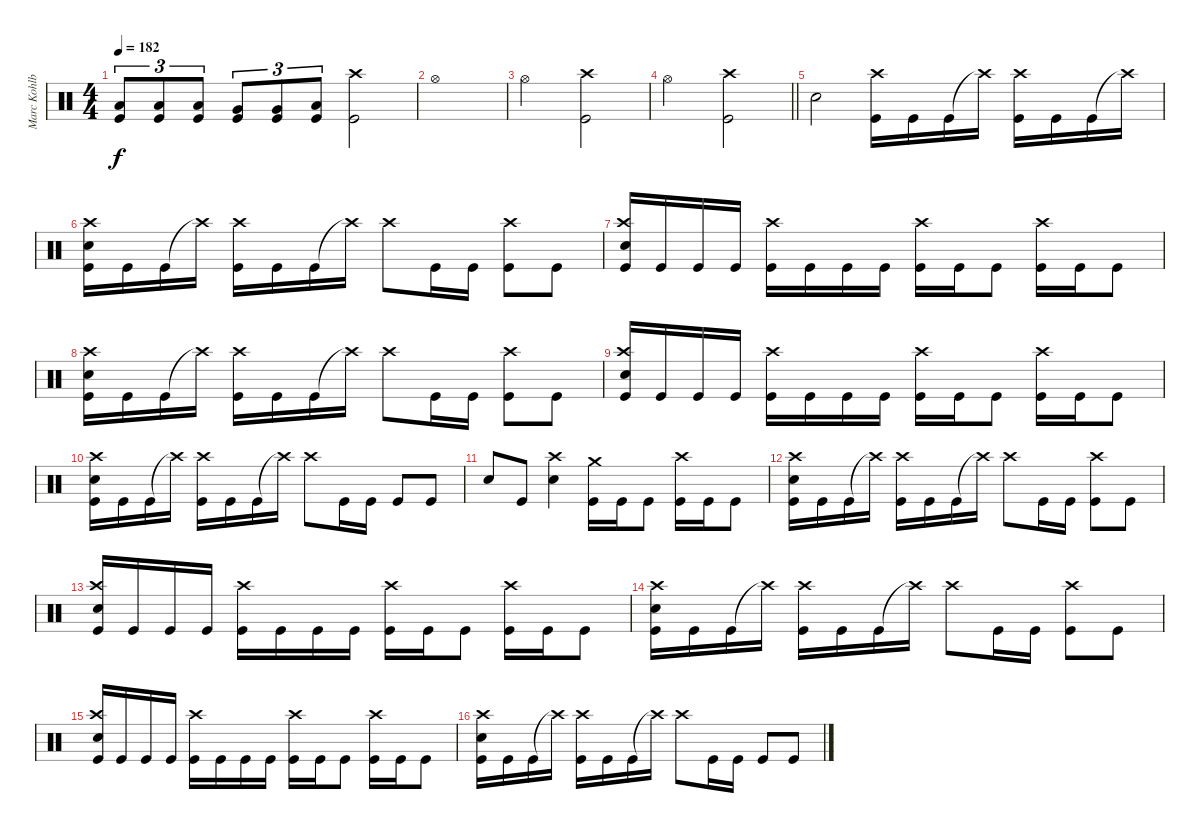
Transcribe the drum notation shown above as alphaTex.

\track ("Marc Kohlbry" "Marc Kohlb") {instrument percussion}
\staff {score}
\articulation defaults
\ts (4 4)
\tempo 182
\clef neutral
\ks c
("Low Tom (hit)" "Kick (hit)").8{tu (3 2) dy f} ("Low Tom (hit)" "Kick (hit)").8{tu (3 2)} ("Low Tom (hit)" "Kick (hit)").8{tu (3 2)} ("Very Low Tom (hit)" "Kick (hit)").8{tu (3 2)} ("Very Low Tom (hit)" "Kick (hit)").8{tu (3 2)} ("Low Floor Tom (hit)" "Kick (hit)").8{tu (3 2)} ("Crash high (hit)" "Kick (hit)").2 |
"Hi-Hat (open)".1 |
"Hi-Hat (open)".2 ("Crash high (hit)" "Kick (hit)").2 |
\barLineRight lightlight "Hi-Hat (open)".2
("Crash high (hit)" "Kick (hit)").2 |
"Electric Snare (hit)".2 ("Crash high (hit)" "Kick (hit)").16 "Kick (hit)".16 "Kick (hit)".16 "Crash high (hit)"{t}.16 ("Crash high (hit)" "Kick (hit)").16 "Kick (hit)".16 "Kick (hit)".16 "Crash high (hit)"{t}.16 |
("Crash high (hit)" "Electric Snare (hit)" "Kick (hit)").16 "Kick (hit)".16 "Kick (hit)".16 "Crash high (hit)"{t}.16 ("Crash high (hit)" "Kick (hit)").16 "Kick (hit)".16 "Kick (hit)".16 "Crash high (hit)"{t}.16 "Crash high (hit)".8 "Kick (hit)".16 "Kick (hit)".16 ("Crash high (hit)" "Kick (hit)").8 "Kick (hit)".8 |
("Crash high (hit)" "Electric Snare (hit)" "Kick (hit)").16 "Kick (hit)".16 "Kick (hit)".16 "Kick (hit)".16 ("Crash high (hit)" "Kick (hit)").16 "Kick (hit)".16 "Kick (hit)".16 "Kick (hit)".16 ("Crash high (hit)" "Kick (hit)").16 "Kick (hit)".16 "Kick (hit)".8 ("Crash high (hit)" "Kick (hit)").16 "Kick (hit)".16 "Kick (hit)".8 |
("Crash high (hit)" "Electric Snare (hit)" "Kick (hit)").16 "Kick (hit)".16 "Kick (hit)".16 "Crash high (hit)"{t}.16 ("Crash high (hit)" "Kick (hit)").16 "Kick (hit)".16 "Kick (hit)".16 "Crash high (hit)"{t}.16 "Crash high (hit)".8 "Kick (hit)".16 "Kick (hit)".16 ("Crash high (hit)" "Kick (hit)").8 "Kick (hit)".8 |
("Crash high (hit)" "Electric Snare (hit)" "Kick (hit)").16 "Kick (hit)".16 "Kick (hit)".16 "Kick (hit)".16 ("Crash high (hit)" "Kick (hit)").16 "Kick (hit)".16 "Kick (hit)".16 "Kick (hit)".16 ("Crash high (hit)" "Kick (hit)").16 "Kick (hit)".16 "Kick (hit)".8 ("Crash high (hit)" "Kick (hit)").16 "Kick (hit)".16 "Kick (hit)".8 |
("Crash high (hit)" "Electric Snare (hit)" "Kick (hit)").16 "Kick (hit)".16 "Kick (hit)".16 "Crash high (hit)"{t}.16 ("Crash high (hit)" "Kick (hit)").16 "Kick (hit)".16 "Kick (hit)".16 "Crash high (hit)"{t}.16 "Crash high (hit)".8 "Kick (hit)".16 "Kick (hit)".16 "Kick (hit)".8 "Kick (hit)".8 |
"Electric Snare (hit)".8 "Kick (hit)".8 ("Crash high (hit)" "Electric Snare (hit)").4 ("Crash medium (hit)" "Kick (hit)").16 "Kick (hit)".16 "Kick (hit)".8 ("Crash high (hit)" "Kick (hit)").16 "Kick (hit)".16 "Kick (hit)".8 |
("Crash high (hit)" "Electric Snare (hit)" "Kick (hit)").16 "Kick (hit)".16 "Kick (hit)".16 "Crash high (hit)"{t}.16 ("Crash high (hit)" "Kick (hit)").16 "Kick (hit)".16 "Kick (hit)".16 "Crash high (hit)"{t}.16 "Crash high (hit)".8 "Kick (hit)".16 "Kick (hit)".16 ("Crash high (hit)" "Kick (hit)").8 "Kick (hit)".8 |
("Crash high (hit)" "Electric Snare (hit)" "Kick (hit)").16 "Kick (hit)".16 "Kick (hit)".16 "Kick (hit)".16 ("Crash high (hit)" "Kick (hit)").16 "Kick (hit)".16 "Kick (hit)".16 "Kick (hit)".16 ("Crash high (hit)" "Kick (hit)").16 "Kick (hit)".16 "Kick (hit)".8 ("Crash high (hit)" "Kick (hit)").16 "Kick (hit)".16 "Kick (hit)".8 |
("Crash high (hit)" "Electric Snare (hit)" "Kick (hit)").16 "Kick (hit)".16 "Kick (hit)".16 "Crash high (hit)"{t}.16 ("Crash high (hit)" "Kick (hit)").16 "Kick (hit)".16 "Kick (hit)".16 "Crash high (hit)"{t}.16 "Crash high (hit)".8 "Kick (hit)".16 "Kick (hit)".16 ("Crash high (hit)" "Kick (hit)").8 "Kick (hit)".8 |
("Crash high (hit)" "Electric Snare (hit)" "Kick (hit)").16 "Kick (hit)".16 "Kick (hit)".16 "Kick (hit)".16 ("Crash high (hit)" "Kick (hit)").16 "Kick (hit)".16 "Kick (hit)".16 "Kick (hit)".16 ("Crash high (hit)" "Kick (hit)").16 "Kick (hit)".16 "Kick (hit)".8 ("Crash high (hit)" "Kick (hit)").16 "Kick (hit)".16 "Kick (hit)".8 |
("Crash high (hit)" "Electric Snare (hit)" "Kick (hit)").16 "Kick (hit)".16 "Kick (hit)".16 "Crash high (hit)"{t}.16 ("Crash high (hit)" "Kick (hit)").16 "Kick (hit)".16 "Kick (hit)".16 "Crash high (hit)"{t}.16 "Crash high (hit)".8 "Kick (hit)".16 "Kick (hit)".16 "Kick (hit)".8 "Kick (hit)".8
